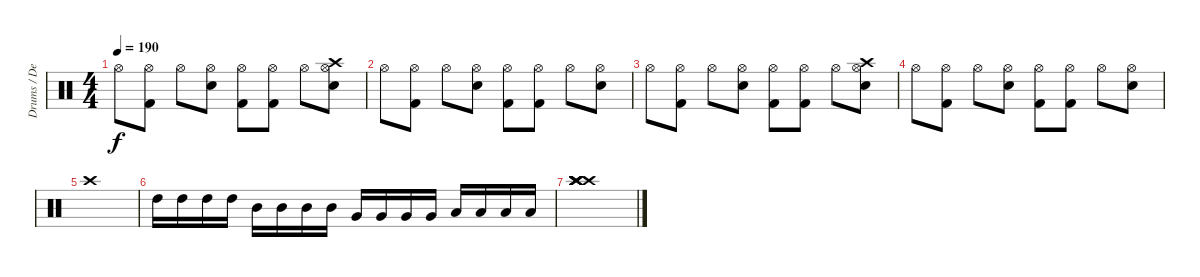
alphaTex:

\track ("Drums / Dennis" "Drums / De") {instrument percussion}
\staff {score}
\articulation defaults
\ts (4 4)
\tempo 190
\clef neutral
\ks c "Hi-Hat (open)".8{dy f}
("Kick (hit) 2" "Hi-Hat (open)").8 "Hi-Hat (open)".8 ("Snare (hit) 2" "Hi-Hat (open)").8 ("Kick (hit) 2" "Hi-Hat (open)").8 ("Kick (hit) 2" "Hi-Hat (open)").8 "Hi-Hat (open)".8 ("Crash high (hit)" "Snare (hit) 2" "Hi-Hat (open)").8 |
"Hi-Hat (open)".8 ("Kick (hit) 2" "Hi-Hat (open)").8 "Hi-Hat (open)".8 ("Snare (hit) 2" "Hi-Hat (open)").8 ("Kick (hit) 2" "Hi-Hat (open)").8 ("Kick (hit) 2" "Hi-Hat (open)").8 "Hi-Hat (open)".8 ("Snare (hit) 2" "Hi-Hat (open)").8 |
"Hi-Hat (open)".8 ("Kick (hit) 2" "Hi-Hat (open)").8 "Hi-Hat (open)".8 ("Snare (hit) 2" "Hi-Hat (open)").8 ("Kick (hit) 2" "Hi-Hat (open)").8 ("Kick (hit) 2" "Hi-Hat (open)").8 "Hi-Hat (open)".8 ("Crash high (hit)" "Snare (hit) 2" "Hi-Hat (open)").8 |
"Hi-Hat (open)".8 ("Kick (hit) 2" "Hi-Hat (open)").8 "Hi-Hat (open)".8 ("Snare (hit) 2" "Hi-Hat (open)").8 ("Kick (hit) 2" "Hi-Hat (open)").8 ("Kick (hit) 2" "Hi-Hat (open)").8 "Hi-Hat (open)".8 ("Snare (hit) 2" "Hi-Hat (open)").8 |
"Crash high (hit)".1 |
"High Tom (hit)".16 "High Tom (hit)".16 "High Tom (hit)".16 "High Tom (hit)".16 "Mid Tom (hit)".16 "Mid Tom (hit)".16 "Mid Tom (hit)".16 "Mid Tom (hit)".16 "Very Low Tom (hit)".16 "Very Low Tom (hit)".16 "Very Low Tom (hit)".16 "Very Low Tom (hit)".16 "Low Floor Tom (hit)".16 "Low Floor Tom (hit)".16 "Low Floor Tom (hit)".16 "Low Floor Tom (hit)".16 |
("Crash high (hit)" "Crash high (hit)" "Crash high (hit)" "Crash high (hit)" "Crash high (hit)" "Crash high (hit)").1
